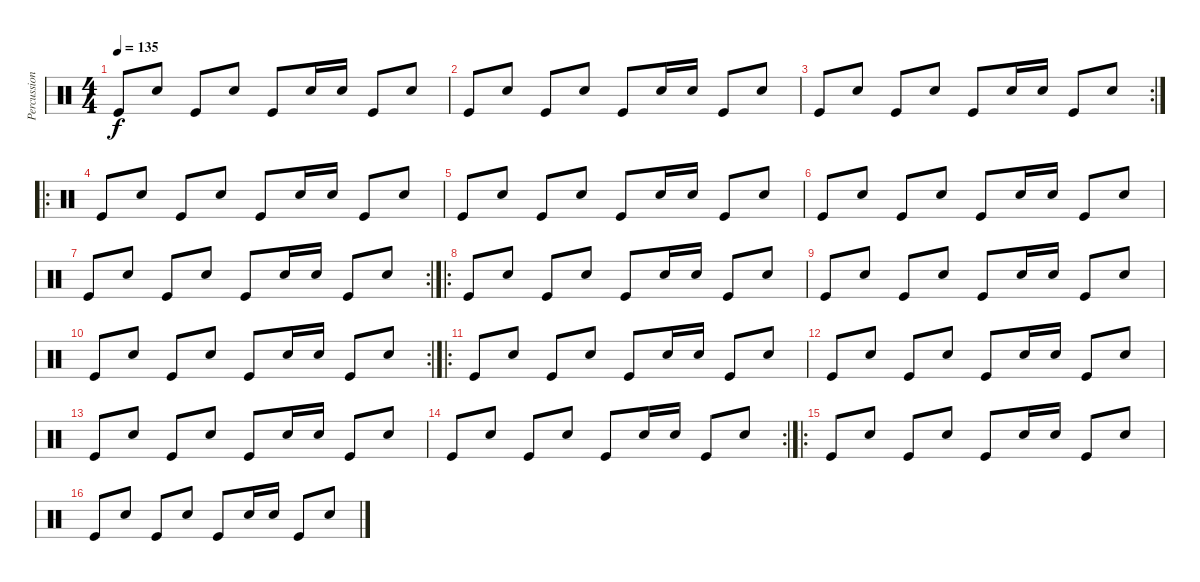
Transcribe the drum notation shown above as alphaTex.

\track ("Percussions" "Percussion") {instrument percussion}
\staff {score}
\articulation defaults
\ts (4 4)
\tempo 135
\clef neutral
\ks c "Kick (hit)".8{dy f} "Snare (hit) 2".8 "Kick (hit)".8 "Snare (hit) 2".8 "Kick (hit)".8 "Snare (hit) 2".16 "Snare (hit) 2".16 "Kick (hit)".8 "Snare (hit) 2".8
|
"Kick (hit)".8 "Snare (hit) 2".8 "Kick (hit)".8 "Snare (hit) 2".8 "Kick (hit)".8 "Snare (hit) 2".16 "Snare (hit) 2".16 "Kick (hit)".8 "Snare (hit) 2".8 |
\rc 2 "Kick (hit)".8 "Snare (hit) 2".8 "Kick (hit)".8 "Snare (hit) 2".8 "Kick (hit)".8 "Snare (hit) 2".16 "Snare (hit) 2".16 "Kick (hit)".8 "Snare (hit) 2".8
|
\ro "Kick (hit)".8 "Snare (hit) 2".8 "Kick (hit)".8 "Snare (hit) 2".8 "Kick (hit)".8 "Snare (hit) 2".16 "Snare (hit) 2".16 "Kick (hit)".8 "Snare (hit) 2".8
|
"Kick (hit)".8 "Snare (hit) 2".8 "Kick (hit)".8 "Snare (hit) 2".8 "Kick (hit)".8 "Snare (hit) 2".16 "Snare (hit) 2".16 "Kick (hit)".8 "Snare (hit) 2".8 |
"Kick (hit)".8 "Snare (hit) 2".8 "Kick (hit)".8 "Snare (hit) 2".8 "Kick (hit)".8 "Snare (hit) 2".16 "Snare (hit) 2".16 "Kick (hit)".8 "Snare (hit) 2".8 |
\rc 2 "Kick (hit)".8 "Snare (hit) 2".8 "Kick (hit)".8 "Snare (hit) 2".8 "Kick (hit)".8 "Snare (hit) 2".16 "Snare (hit) 2".16 "Kick (hit)".8 "Snare (hit) 2".8
|
\ro "Kick (hit)".8 "Snare (hit) 2".8 "Kick (hit)".8 "Snare (hit) 2".8 "Kick (hit)".8 "Snare (hit) 2".16 "Snare (hit) 2".16 "Kick (hit)".8 "Snare (hit) 2".8
|
"Kick (hit)".8 "Snare (hit) 2".8 "Kick (hit)".8 "Snare (hit) 2".8 "Kick (hit)".8 "Snare (hit) 2".16 "Snare (hit) 2".16 "Kick (hit)".8 "Snare (hit) 2".8 |
\rc 2 "Kick (hit)".8 "Snare (hit) 2".8 "Kick (hit)".8 "Snare (hit) 2".8 "Kick (hit)".8 "Snare (hit) 2".16 "Snare (hit) 2".16 "Kick (hit)".8 "Snare (hit) 2".8
|
\ro "Kick (hit)".8 "Snare (hit) 2".8 "Kick (hit)".8 "Snare (hit) 2".8 "Kick (hit)".8 "Snare (hit) 2".16 "Snare (hit) 2".16 "Kick (hit)".8 "Snare (hit) 2".8
|
"Kick (hit)".8 "Snare (hit) 2".8 "Kick (hit)".8 "Snare (hit) 2".8 "Kick (hit)".8 "Snare (hit) 2".16 "Snare (hit) 2".16 "Kick (hit)".8 "Snare (hit) 2".8 |
"Kick (hit)".8 "Snare (hit) 2".8 "Kick (hit)".8 "Snare (hit) 2".8 "Kick (hit)".8 "Snare (hit) 2".16 "Snare (hit) 2".16 "Kick (hit)".8 "Snare (hit) 2".8 |
\rc 2 "Kick (hit)".8 "Snare (hit) 2".8 "Kick (hit)".8 "Snare (hit) 2".8 "Kick (hit)".8 "Snare (hit) 2".16 "Snare (hit) 2".16 "Kick (hit)".8 "Snare (hit) 2".8
|
\ro "Kick (hit)".8 "Snare (hit) 2".8 "Kick (hit)".8 "Snare (hit) 2".8 "Kick (hit)".8 "Snare (hit) 2".16 "Snare (hit) 2".16 "Kick (hit)".8 "Snare (hit) 2".8
|
"Kick (hit)".8 "Snare (hit) 2".8 "Kick (hit)".8 "Snare (hit) 2".8 "Kick (hit)".8 "Snare (hit) 2".16 "Snare (hit) 2".16 "Kick (hit)".8 "Snare (hit) 2".8
